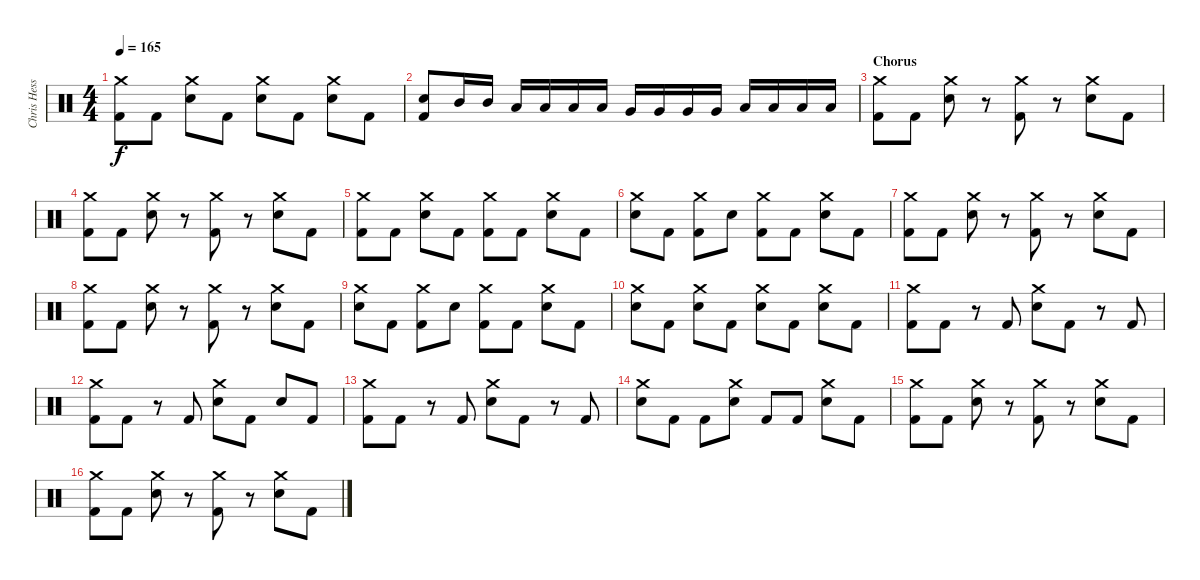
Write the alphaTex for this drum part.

\track ("Chris Hesse" "Chris Hess") {instrument percussion}
\staff {score}
\articulation defaults
\ts (4 4)
\tempo 165
\clef neutral
\ks c
("Crash medium (hit)" "Kick (hit) 2").8{dy f} "Kick (hit) 2".8 ("Crash medium (hit)" "Snare (hit) 2").8 "Kick (hit) 2".8 ("Crash medium (hit)" "Snare (hit) 2").8 "Kick (hit) 2".8 ("Crash medium (hit)" "Snare (hit) 2").8 "Kick (hit) 2".8 |
("Kick (hit) 2" "Snare (hit) 2").8 "Mid Tom (hit)".16 "Mid Tom (hit)".16 "Low Tom (hit)".16 "Low Tom (hit)".16 "Low Tom (hit)".16 "Low Tom (hit)".16 "Very Low Tom (hit)".16 "Very Low Tom (hit)".16 "Very Low Tom (hit)".16 "Very Low Tom (hit)".16 "Low Floor Tom (hit)".16 "Low Floor Tom (hit)".16 "Low Floor Tom (hit)".16 "Low Floor Tom (hit)".16 |
\section ("" "Chorus")
("Crash medium (hit)" "Kick (hit) 2").8 "Kick (hit) 2".8 ("Crash medium (hit)" "Snare (hit) 2").8 r.8 ("Crash medium (hit)" "Kick (hit) 2").8 r.8 ("Crash medium (hit)" "Snare (hit) 2").8 "Kick (hit) 2".8 |
("Crash medium (hit)" "Kick (hit) 2").8 "Kick (hit) 2".8 ("Crash medium (hit)" "Snare (hit) 2").8 r.8 ("Crash medium (hit)" "Kick (hit) 2").8 r.8 ("Crash medium (hit)" "Snare (hit) 2").8 "Kick (hit) 2".8 |
("Crash medium (hit)" "Kick (hit) 2").8 "Kick (hit) 2".8 ("Crash medium (hit)" "Snare (hit) 2").8 "Kick (hit) 2".8 ("Crash medium (hit)" "Kick (hit) 2").8 "Kick (hit) 2".8 ("Crash medium (hit)" "Snare (hit) 2").8 "Kick (hit) 2".8 |
("Crash medium (hit)" "Snare (hit) 2").8 "Kick (hit) 2".8 ("Crash medium (hit)" "Kick (hit) 2").8 "Snare (hit) 2".8 ("Crash medium (hit)" "Kick (hit) 2").8 "Kick (hit) 2".8 ("Crash medium (hit)" "Snare (hit) 2").8 "Kick (hit) 2".8 |
("Crash medium (hit)" "Kick (hit) 2").8 "Kick (hit) 2".8 ("Crash medium (hit)" "Snare (hit) 2").8 r.8 ("Crash medium (hit)" "Kick (hit) 2").8 r.8 ("Crash medium (hit)" "Snare (hit) 2").8 "Kick (hit) 2".8 |
("Crash medium (hit)" "Kick (hit) 2").8 "Kick (hit) 2".8 ("Crash medium (hit)" "Snare (hit) 2").8 r.8 ("Crash medium (hit)" "Kick (hit) 2").8 r.8 ("Crash medium (hit)" "Snare (hit) 2").8 "Kick (hit) 2".8 |
("Crash medium (hit)" "Snare (hit) 2").8 "Kick (hit) 2".8 ("Crash medium (hit)" "Kick (hit) 2").8 "Snare (hit) 2".8 ("Crash medium (hit)" "Kick (hit) 2").8 "Kick (hit) 2".8 ("Crash medium (hit)" "Snare (hit) 2").8 "Kick (hit) 2".8 |
("Crash medium (hit)" "Snare (hit) 2").8 "Kick (hit) 2".8 ("Crash medium (hit)" "Snare (hit) 2").8 "Kick (hit) 2".8 ("Crash medium (hit)" "Snare (hit) 2").8 "Kick (hit) 2".8 ("Crash medium (hit)" "Snare (hit) 2").8 "Kick (hit) 2".8 |
("Crash medium (hit)" "Kick (hit) 2").8 "Kick (hit) 2".8 r.8 "Kick (hit) 2".8 ("Crash medium (hit)" "Snare (hit) 2").8 "Kick (hit) 2".8 r.8 "Kick (hit) 2".8 |
("Crash medium (hit)" "Kick (hit) 2").8 "Kick (hit) 2".8 r.8 "Kick (hit) 2".8 ("Crash medium (hit)" "Snare (hit) 2").8 "Kick (hit) 2".8 "Snare (hit) 2".8 "Kick (hit) 2".8 |
("Crash medium (hit)" "Kick (hit) 2").8 "Kick (hit) 2".8 r.8 "Kick (hit) 2".8 ("Crash medium (hit)" "Snare (hit) 2").8 "Kick (hit) 2".8 r.8 "Kick (hit) 2".8 |
("Crash medium (hit)" "Snare (hit) 2").8 "Kick (hit) 2".8 "Kick (hit) 2".8 ("Crash medium (hit)" "Snare (hit) 2").8 "Kick (hit) 2".8 "Kick (hit) 2".8 ("Crash medium (hit)" "Snare (hit) 2").8 "Kick (hit) 2".8 |
("Crash medium (hit)" "Kick (hit) 2").8 "Kick (hit) 2".8 ("Crash medium (hit)" "Snare (hit) 2").8 r.8 ("Crash medium (hit)" "Kick (hit) 2").8 r.8 ("Crash medium (hit)" "Snare (hit) 2").8 "Kick (hit) 2".8 |
("Crash medium (hit)" "Kick (hit) 2").8 "Kick (hit) 2".8 ("Crash medium (hit)" "Snare (hit) 2").8 r.8 ("Crash medium (hit)" "Kick (hit) 2").8 r.8 ("Crash medium (hit)" "Snare (hit) 2").8 "Kick (hit) 2".8
